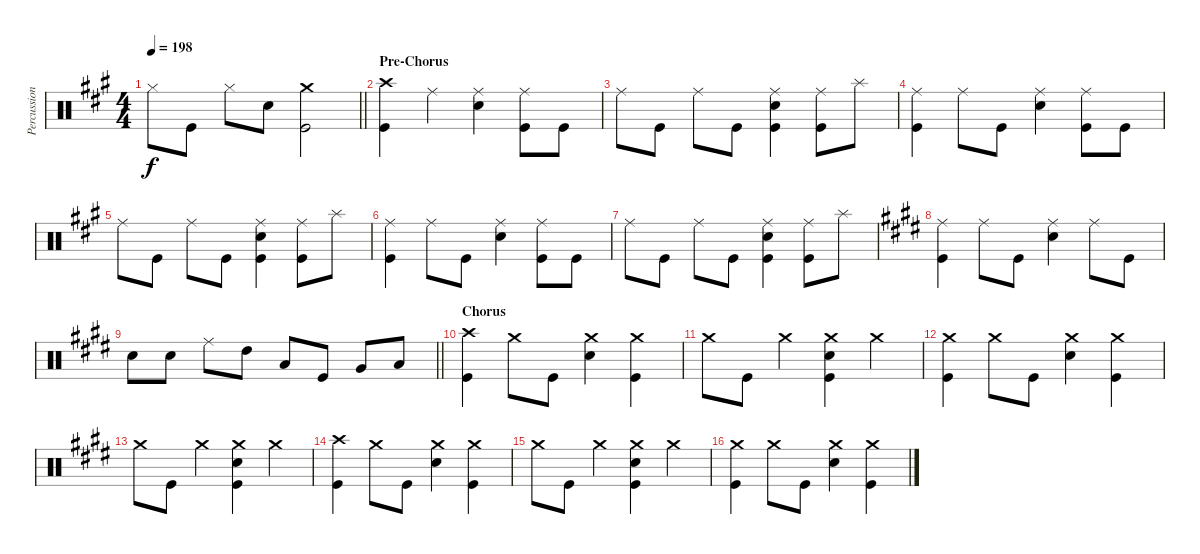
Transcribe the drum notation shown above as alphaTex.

\track ("Percussion" "Percussion") {instrument percussion}
\staff {score}
\articulation defaults
\ts (4 4)
\tempo 198
\clef neutral
\barLineRight lightlight
\ks a "Hi-Hat (closed)".8{dy f} "Kick (hit)".8 "Hi-Hat (closed)".8 "Electric Snare (hit)".8
("Crash medium (hit)" "Kick (hit)").2 |
\section ("" "Pre-Chorus")
("Crash high (hit)" "Kick (hit)").4 "Ride (middle)".4 ("Ride (middle)" "Electric Snare (hit)").4 ("Ride (middle)" "Kick (hit)").8 "Kick (hit)".8 |
"Ride (middle)".8 "Kick (hit)".8 "Ride (middle)".8 "Kick (hit)".8 ("Ride (middle)" "Electric Snare (hit)" "Kick (hit)").4 ("Ride (middle)" "Kick (hit)").8 "Splash (hit)".8 |
("Ride (middle)" "Kick (hit)").4 "Ride (middle)".8 "Kick (hit)".8 ("Ride (middle)" "Electric Snare (hit)").4 ("Ride (middle)" "Kick (hit)").8 "Kick (hit)".8 |
"Ride (middle)".8 "Kick (hit)".8 "Ride (middle)".8 "Kick (hit)".8 ("Ride (middle)" "Electric Snare (hit)" "Kick (hit)").4 ("Ride (middle)" "Kick (hit)").8 "Splash (hit)".8 |
("Ride (middle)" "Kick (hit)").4 "Ride (middle)".8 "Kick (hit)".8 ("Ride (middle)" "Electric Snare (hit)").4 ("Ride (middle)" "Kick (hit)").8 "Kick (hit)".8 |
"Ride (middle)".8 "Kick (hit)".8 "Ride (middle)".8 "Kick (hit)".8 ("Ride (middle)" "Electric Snare (hit)" "Kick (hit)").4 ("Ride (middle)" "Kick (hit)").8 "Splash (hit)".8 |
\ks e
("Ride (middle)" "Kick (hit)").4 "Ride (middle)".8 "Kick (hit)".8 ("Ride (middle)" "Electric Snare (hit)").4 "Ride (middle)".8 "Kick (hit)".8 |
\barLineRight lightlight "Electric Snare (hit)".8 "Electric Snare (hit)".8 "Ride (middle)".8 "High Tom (hit)".8 "Low Tom (hit)".8 "Kick (hit)".8 "Very Low Tom (hit)".8 "Low Floor Tom (hit)".8
|
\section ("" "Chorus")
("Crash high (hit)" "Kick (hit)").4 "Crash medium (hit)".8 "Kick (hit)".8 ("Crash medium (hit)" "Electric Snare (hit)").4 ("Crash medium (hit)" "Kick (hit)").4 |
"Crash medium (hit)".8 "Kick (hit)".8 "Crash medium (hit)".4 ("Crash medium (hit)" "Electric Snare (hit)" "Kick (hit)").4 "Crash medium (hit)".4 |
("Crash medium (hit)" "Kick (hit)").4 "Crash medium (hit)".8 "Kick (hit)".8 ("Crash medium (hit)" "Electric Snare (hit)").4 ("Crash medium (hit)" "Kick (hit)").4 |
"Crash medium (hit)".8 "Kick (hit)".8 "Crash medium (hit)".4 ("Crash medium (hit)" "Electric Snare (hit)" "Kick (hit)").4 "Crash medium (hit)".4 |
("Crash high (hit)" "Kick (hit)").4 "Crash medium (hit)".8 "Kick (hit)".8 ("Crash medium (hit)" "Electric Snare (hit)").4 ("Crash medium (hit)" "Kick (hit)").4 |
"Crash medium (hit)".8 "Kick (hit)".8 "Crash medium (hit)".4 ("Crash medium (hit)" "Electric Snare (hit)" "Kick (hit)").4 "Crash medium (hit)".4 |
("Crash medium (hit)" "Kick (hit)").4 "Crash medium (hit)".8 "Kick (hit)".8 ("Crash medium (hit)" "Electric Snare (hit)").4 ("Crash medium (hit)" "Kick (hit)").4
